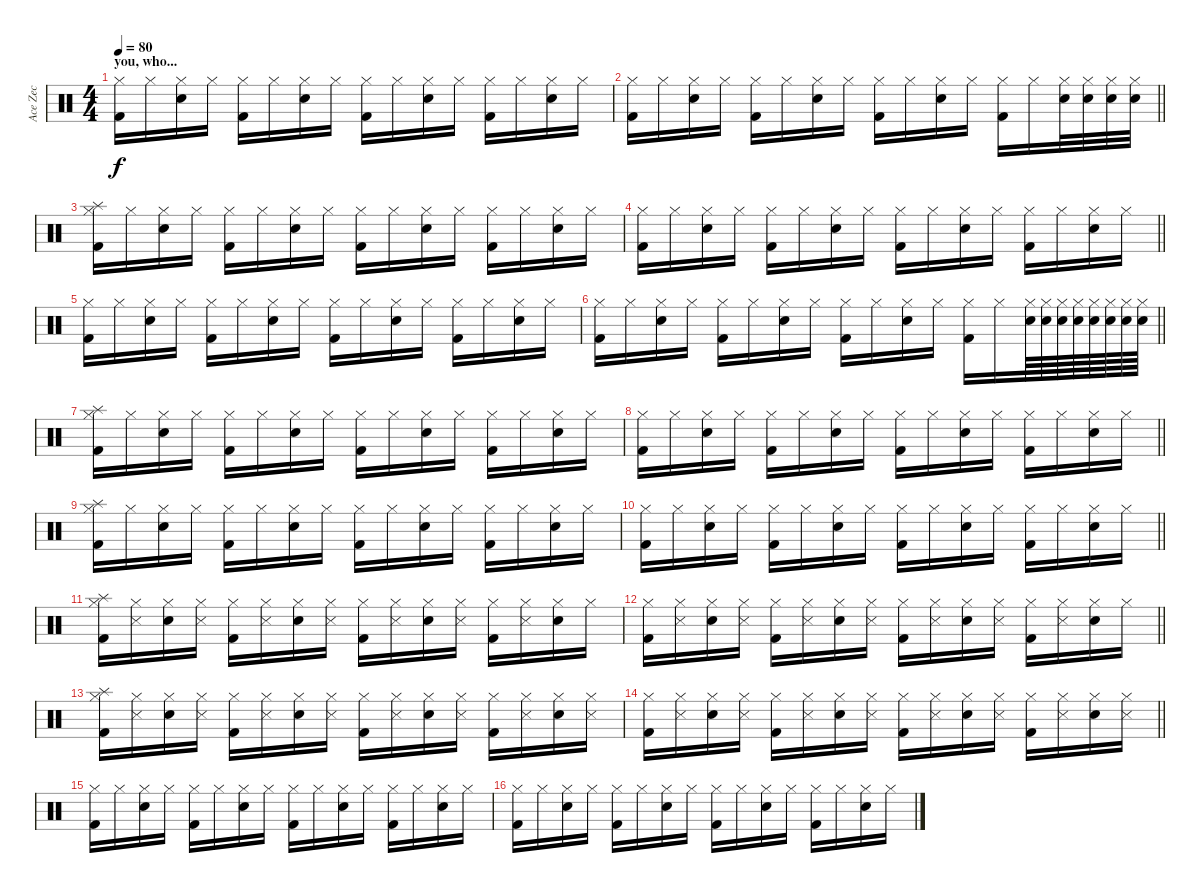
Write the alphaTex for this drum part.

\track ("Ace Zec" "Ace Zec") {instrument percussion}
\staff {score}
\articulation defaults
\ts (4 4)
\section ("" "you, who...")
\tempo 80
\clef neutral
\ks c
("Hi-Hat (closed)" "Kick (hit) 2").16{dy f} "Hi-Hat (closed)".16 ("Hi-Hat (closed)" "Snare (hit) 2").16 "Hi-Hat (closed)".16 ("Hi-Hat (closed)" "Kick (hit) 2").16 "Hi-Hat (closed)".16 ("Hi-Hat (closed)" "Snare (hit) 2").16 "Hi-Hat (closed)".16 ("Hi-Hat (closed)" "Kick (hit) 2").16 "Hi-Hat (closed)".16 ("Hi-Hat (closed)" "Snare (hit) 2").16 "Hi-Hat (closed)".16 ("Hi-Hat (closed)" "Kick (hit) 2").16 "Hi-Hat (closed)".16 ("Hi-Hat (closed)" "Snare (hit) 2").16 "Hi-Hat (closed)".16 |
\barLineRight lightlight
("Hi-Hat (closed)" "Kick (hit) 2").16 "Hi-Hat (closed)".16 ("Hi-Hat (closed)" "Snare (hit) 2").16 "Hi-Hat (closed)".16 ("Hi-Hat (closed)" "Kick (hit) 2").16 "Hi-Hat (closed)".16 ("Hi-Hat (closed)" "Snare (hit) 2").16 "Hi-Hat (closed)".16 ("Hi-Hat (closed)" "Kick (hit) 2").16 "Hi-Hat (closed)".16 ("Hi-Hat (closed)" "Snare (hit) 2").16 "Hi-Hat (closed)".16 ("Hi-Hat (closed)" "Kick (hit) 2").16 "Hi-Hat (closed)".16 ("Hi-Hat (closed)" "Snare (hit) 2").32 ("Hi-Hat (closed)" "Snare (hit) 2").32 ("Hi-Hat (closed)" "Snare (hit) 2").32 ("Hi-Hat (closed)" "Snare (hit) 2").32 |
("Hi-Hat (closed)" "Kick (hit) 2" "Splash (hit)").16 "Hi-Hat (closed)".16 ("Hi-Hat (closed)" "Snare (hit) 2").16 "Hi-Hat (closed)".16 ("Hi-Hat (closed)" "Kick (hit) 2").16 "Hi-Hat (closed)".16 ("Hi-Hat (closed)" "Snare (hit) 2").16 "Hi-Hat (closed)".16 ("Hi-Hat (closed)" "Kick (hit) 2").16 "Hi-Hat (closed)".16 ("Hi-Hat (closed)" "Snare (hit) 2").16 "Hi-Hat (closed)".16 ("Hi-Hat (closed)" "Kick (hit) 2").16 "Hi-Hat (closed)".16 ("Hi-Hat (closed)" "Snare (hit) 2").16 "Hi-Hat (closed)".16 |
\barLineRight lightlight
("Hi-Hat (closed)" "Kick (hit) 2").16 "Hi-Hat (closed)".16 ("Hi-Hat (closed)" "Snare (hit) 2").16 "Hi-Hat (closed)".16 ("Hi-Hat (closed)" "Kick (hit) 2").16 "Hi-Hat (closed)".16 ("Hi-Hat (closed)" "Snare (hit) 2").16 "Hi-Hat (closed)".16 ("Hi-Hat (closed)" "Kick (hit) 2").16 "Hi-Hat (closed)".16 ("Hi-Hat (closed)" "Snare (hit) 2").16 "Hi-Hat (closed)".16 ("Hi-Hat (closed)" "Kick (hit) 2").16 "Hi-Hat (closed)".16 ("Hi-Hat (closed)" "Snare (hit) 2").16 "Hi-Hat (closed)".16 |
("Hi-Hat (closed)" "Kick (hit) 2").16 "Hi-Hat (closed)".16 ("Hi-Hat (closed)" "Snare (hit) 2").16 "Hi-Hat (closed)".16 ("Hi-Hat (closed)" "Kick (hit) 2").16 "Hi-Hat (closed)".16 ("Hi-Hat (closed)" "Snare (hit) 2").16 "Hi-Hat (closed)".16 ("Hi-Hat (closed)" "Kick (hit) 2").16 "Hi-Hat (closed)".16 ("Hi-Hat (closed)" "Snare (hit) 2").16 "Hi-Hat (closed)".16 ("Hi-Hat (closed)" "Kick (hit) 2").16 "Hi-Hat (closed)".16 ("Hi-Hat (closed)" "Snare (hit) 2").16 "Hi-Hat (closed)".16 |
\barLineRight lightlight
("Hi-Hat (closed)" "Kick (hit) 2").16 "Hi-Hat (closed)".16 ("Hi-Hat (closed)" "Snare (hit) 2").16 "Hi-Hat (closed)".16 ("Hi-Hat (closed)" "Kick (hit) 2").16 "Hi-Hat (closed)".16 ("Hi-Hat (closed)" "Snare (hit) 2").16 "Hi-Hat (closed)".16 ("Hi-Hat (closed)" "Kick (hit) 2").16 "Hi-Hat (closed)".16 ("Hi-Hat (closed)" "Snare (hit) 2").16 "Hi-Hat (closed)".16 ("Hi-Hat (closed)" "Kick (hit) 2").16 "Hi-Hat (closed)".16 ("Hi-Hat (closed)" "Snare (hit) 2").64 ("Hi-Hat (closed)" "Snare (hit) 2").64 ("Hi-Hat (closed)" "Snare (hit) 2").64 ("Hi-Hat (closed)" "Snare (hit) 2").64 ("Hi-Hat (closed)" "Snare (hit) 2").64 ("Hi-Hat (closed)" "Snare (hit) 2").64 ("Hi-Hat (closed)" "Snare (hit) 2").64 ("Hi-Hat (closed)" "Snare (hit) 2").64 |
("Hi-Hat (closed)" "Kick (hit) 2" "Splash (hit)").16 "Hi-Hat (closed)".16 ("Hi-Hat (closed)" "Snare (hit) 2").16 "Hi-Hat (closed)".16 ("Hi-Hat (closed)" "Kick (hit) 2").16 "Hi-Hat (closed)".16 ("Hi-Hat (closed)" "Snare (hit) 2").16 "Hi-Hat (closed)".16 ("Hi-Hat (closed)" "Kick (hit) 2").16 "Hi-Hat (closed)".16 ("Hi-Hat (closed)" "Snare (hit) 2").16 "Hi-Hat (closed)".16 ("Hi-Hat (closed)" "Kick (hit) 2").16 "Hi-Hat (closed)".16 ("Hi-Hat (closed)" "Snare (hit) 2").16 "Hi-Hat (closed)".16 |
\barLineRight lightlight
("Hi-Hat (closed)" "Kick (hit) 2").16 "Hi-Hat (closed)".16 ("Hi-Hat (closed)" "Snare (hit) 2").16 "Hi-Hat (closed)".16 ("Hi-Hat (closed)" "Kick (hit) 2").16 "Hi-Hat (closed)".16 ("Hi-Hat (closed)" "Snare (hit) 2").16 "Hi-Hat (closed)".16 ("Hi-Hat (closed)" "Kick (hit) 2").16 "Hi-Hat (closed)".16 ("Hi-Hat (closed)" "Snare (hit) 2").16 "Hi-Hat (closed)".16 ("Hi-Hat (closed)" "Kick (hit) 2").16 "Hi-Hat (closed)".16 ("Hi-Hat (closed)" "Snare (hit) 2").16 "Hi-Hat (closed)".16 |
("Hi-Hat (closed)" "Kick (hit) 2" "Splash (hit)").16 "Hi-Hat (closed)".16 ("Hi-Hat (closed)" "Snare (hit) 2").16 "Hi-Hat (closed)".16 ("Hi-Hat (closed)" "Kick (hit) 2").16 "Hi-Hat (closed)".16 ("Hi-Hat (closed)" "Snare (hit) 2").16 "Hi-Hat (closed)".16 ("Hi-Hat (closed)" "Kick (hit) 2").16 "Hi-Hat (closed)".16 ("Hi-Hat (closed)" "Snare (hit) 2").16 "Hi-Hat (closed)".16 ("Hi-Hat (closed)" "Kick (hit) 2").16 "Hi-Hat (closed)".16 ("Hi-Hat (closed)" "Snare (hit) 2").16 "Hi-Hat (closed)".16 |
\barLineRight lightlight
("Hi-Hat (closed)" "Kick (hit) 2").16 "Hi-Hat (closed)".16 ("Hi-Hat (closed)" "Snare (hit) 2").16 "Hi-Hat (closed)".16 ("Hi-Hat (closed)" "Kick (hit) 2").16 "Hi-Hat (closed)".16 ("Hi-Hat (closed)" "Snare (hit) 2").16 "Hi-Hat (closed)".16 ("Hi-Hat (closed)" "Kick (hit) 2").16 "Hi-Hat (closed)".16 ("Hi-Hat (closed)" "Snare (hit) 2").16 "Hi-Hat (closed)".16 ("Hi-Hat (closed)" "Kick (hit) 2").16 "Hi-Hat (closed)".16 ("Hi-Hat (closed)" "Snare (hit) 2").16 "Hi-Hat (closed)".16 |
("Hi-Hat (closed)" "Kick (hit) 2" "Splash (hit)").16 ("Hi-Hat (closed)" "Metronome (hit)").16 ("Hi-Hat (closed)" "Snare (hit) 2").16 ("Hi-Hat (closed)" "Metronome (hit)").16 ("Hi-Hat (closed)" "Kick (hit) 2").16 ("Hi-Hat (closed)" "Metronome (hit)").16 ("Hi-Hat (closed)" "Snare (hit) 2").16 ("Hi-Hat (closed)" "Metronome (hit)").16 ("Hi-Hat (closed)" "Kick (hit) 2").16 ("Hi-Hat (closed)" "Metronome (hit)").16 ("Hi-Hat (closed)" "Snare (hit) 2").16 ("Hi-Hat (closed)" "Metronome (hit)").16 ("Hi-Hat (closed)" "Kick (hit) 2").16 ("Hi-Hat (closed)" "Metronome (hit)").16 ("Hi-Hat (closed)" "Snare (hit) 2").16 "Hi-Hat (closed)".16 |
\barLineRight lightlight
("Hi-Hat (closed)" "Kick (hit) 2").16 ("Hi-Hat (closed)" "Metronome (hit)").16 ("Hi-Hat (closed)" "Snare (hit) 2").16 ("Hi-Hat (closed)" "Metronome (hit)").16 ("Hi-Hat (closed)" "Kick (hit) 2").16 ("Hi-Hat (closed)" "Metronome (hit)").16 ("Hi-Hat (closed)" "Snare (hit) 2").16 ("Hi-Hat (closed)" "Metronome (hit)").16 ("Hi-Hat (closed)" "Kick (hit) 2").16 ("Hi-Hat (closed)" "Metronome (hit)").16 ("Hi-Hat (closed)" "Snare (hit) 2").16 ("Hi-Hat (closed)" "Metronome (hit)").16 ("Hi-Hat (closed)" "Kick (hit) 2").16 ("Hi-Hat (closed)" "Metronome (hit)").16 ("Hi-Hat (closed)" "Snare (hit) 2").16 "Hi-Hat (closed)".16 |
("Hi-Hat (closed)" "Kick (hit) 2" "Splash (hit)").16 ("Hi-Hat (closed)" "Metronome (hit)").16 ("Hi-Hat (closed)" "Snare (hit) 2").16 ("Hi-Hat (closed)" "Metronome (hit)").16 ("Hi-Hat (closed)" "Kick (hit) 2").16 ("Hi-Hat (closed)" "Metronome (hit)").16 ("Hi-Hat (closed)" "Snare (hit) 2").16 ("Hi-Hat (closed)" "Metronome (hit)").16 ("Hi-Hat (closed)" "Kick (hit) 2").16 ("Hi-Hat (closed)" "Metronome (hit)").16 ("Hi-Hat (closed)" "Snare (hit) 2").16 ("Hi-Hat (closed)" "Metronome (hit)").16 ("Hi-Hat (closed)" "Kick (hit) 2").16 ("Hi-Hat (closed)" "Metronome (hit)").16 ("Hi-Hat (closed)" "Snare (hit) 2").16 ("Hi-Hat (closed)" "Metronome (hit)").16 |
\barLineRight lightlight
("Hi-Hat (closed)" "Kick (hit) 2").16 ("Hi-Hat (closed)" "Metronome (hit)").16 ("Hi-Hat (closed)" "Snare (hit) 2").16 ("Hi-Hat (closed)" "Metronome (hit)").16 ("Hi-Hat (closed)" "Kick (hit) 2").16 ("Hi-Hat (closed)" "Metronome (hit)").16 ("Hi-Hat (closed)" "Snare (hit) 2").16 ("Hi-Hat (closed)" "Metronome (hit)").16 ("Hi-Hat (closed)" "Kick (hit) 2").16 ("Hi-Hat (closed)" "Metronome (hit)").16 ("Hi-Hat (closed)" "Snare (hit) 2").16 ("Hi-Hat (closed)" "Metronome (hit)").16 ("Hi-Hat (closed)" "Kick (hit) 2").16 ("Hi-Hat (closed)" "Metronome (hit)").16 ("Hi-Hat (closed)" "Snare (hit) 2").16 ("Hi-Hat (closed)" "Metronome (hit)").16 |
("Hi-Hat (closed)" "Kick (hit) 2").16 "Hi-Hat (closed)".16 ("Hi-Hat (closed)" "Snare (hit) 2").16 "Hi-Hat (closed)".16 ("Hi-Hat (closed)" "Kick (hit) 2").16 "Hi-Hat (closed)".16 ("Hi-Hat (closed)" "Snare (hit) 2").16 "Hi-Hat (closed)".16 ("Hi-Hat (closed)" "Kick (hit) 2").16 "Hi-Hat (closed)".16 ("Hi-Hat (closed)" "Snare (hit) 2").16 "Hi-Hat (closed)".16 ("Hi-Hat (closed)" "Kick (hit) 2").16 "Hi-Hat (closed)".16 ("Hi-Hat (closed)" "Snare (hit) 2").16 "Hi-Hat (closed)".16 |
("Hi-Hat (closed)" "Kick (hit) 2").16 "Hi-Hat (closed)".16 ("Hi-Hat (closed)" "Snare (hit) 2").16 "Hi-Hat (closed)".16 ("Hi-Hat (closed)" "Kick (hit) 2").16 "Hi-Hat (closed)".16 ("Hi-Hat (closed)" "Snare (hit) 2").16 "Hi-Hat (closed)".16 ("Hi-Hat (closed)" "Kick (hit) 2").16 "Hi-Hat (closed)".16 ("Hi-Hat (closed)" "Snare (hit) 2").16 "Hi-Hat (closed)".16 ("Hi-Hat (closed)" "Kick (hit) 2").16 "Hi-Hat (closed)".16 ("Hi-Hat (closed)" "Snare (hit) 2").16 "Hi-Hat (closed)".16
